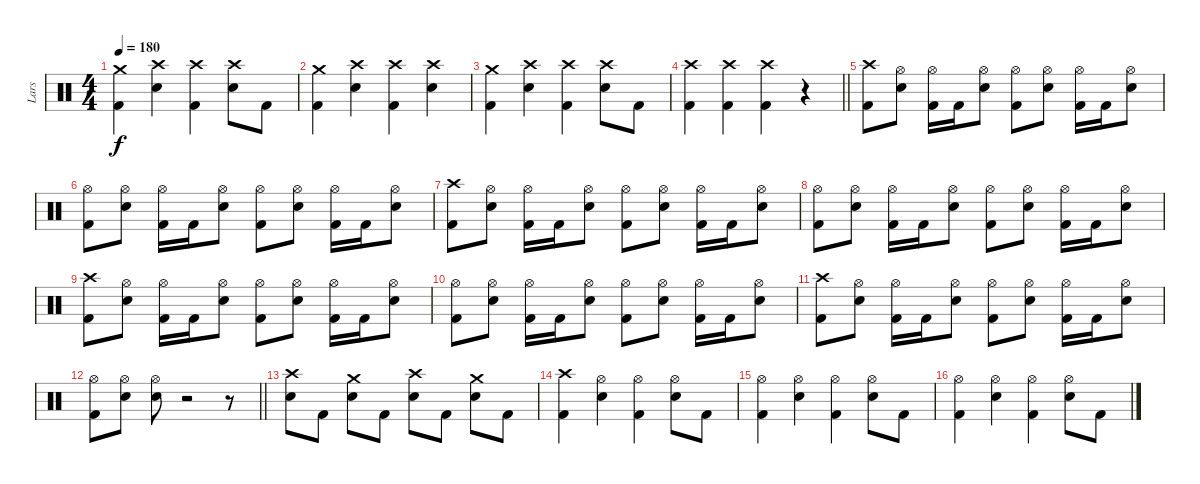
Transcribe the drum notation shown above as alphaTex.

\track ("Lars" "Lars") {instrument percussion}
\staff {score}
\articulation defaults
\ts (4 4)
\tempo 180
\clef neutral
\ks c
("Crash medium (hit)" "Kick (hit) 2").4{dy f} ("Crash high (hit)" "Electric Snare (hit)").4 ("Crash high (hit)" "Kick (hit) 2").4 ("Crash high (hit)" "Electric Snare (hit)").8 "Kick (hit) 2".8 |
("Crash medium (hit)" "Kick (hit) 2").4 ("Crash high (hit)" "Electric Snare (hit)").4 ("Crash high (hit)" "Kick (hit) 2").4 ("Crash high (hit)" "Electric Snare (hit)").4 |
("Crash medium (hit)" "Kick (hit) 2").4 ("Crash high (hit)" "Electric Snare (hit)").4 ("Crash high (hit)" "Kick (hit) 2").4 ("Crash high (hit)" "Electric Snare (hit)").8 "Kick (hit) 2".8 |
\barLineRight lightlight
("Crash high (hit)" "Kick (hit) 2").4 ("Crash high (hit)" "Kick (hit) 2").4 ("Crash high (hit)" "Kick (hit) 2").4 r.4 |
\section ("" "")
("Crash high (hit)" "Kick (hit) 2").8 ("Hi-Hat (open)" "Electric Snare (hit)").8 ("Hi-Hat (open)" "Kick (hit) 2").16 "Kick (hit) 2".16 ("Hi-Hat (open)" "Electric Snare (hit)").8 ("Hi-Hat (open)" "Kick (hit) 2").8 ("Hi-Hat (open)" "Electric Snare (hit)").8 ("Hi-Hat (open)" "Kick (hit) 2").16 "Kick (hit) 2".16 ("Hi-Hat (open)" "Electric Snare (hit)").8 |
("Hi-Hat (open)" "Kick (hit) 2").8 ("Hi-Hat (open)" "Electric Snare (hit)").8 ("Hi-Hat (open)" "Kick (hit) 2").16 "Kick (hit) 2".16 ("Hi-Hat (open)" "Electric Snare (hit)").8 ("Hi-Hat (open)" "Kick (hit) 2").8 ("Hi-Hat (open)" "Electric Snare (hit)").8 ("Hi-Hat (open)" "Kick (hit) 2").16 "Kick (hit) 2".16 ("Hi-Hat (open)" "Electric Snare (hit)").8 |
("Crash high (hit)" "Kick (hit) 2").8 ("Hi-Hat (open)" "Electric Snare (hit)").8 ("Hi-Hat (open)" "Kick (hit) 2").16 "Kick (hit) 2".16 ("Hi-Hat (open)" "Electric Snare (hit)").8 ("Hi-Hat (open)" "Kick (hit) 2").8 ("Hi-Hat (open)" "Electric Snare (hit)").8 ("Hi-Hat (open)" "Kick (hit) 2").16 "Kick (hit) 2".16 ("Hi-Hat (open)" "Electric Snare (hit)").8 |
("Hi-Hat (open)" "Kick (hit) 2").8 ("Hi-Hat (open)" "Electric Snare (hit)").8 ("Hi-Hat (open)" "Kick (hit) 2").16 "Kick (hit) 2".16 ("Hi-Hat (open)" "Electric Snare (hit)").8 ("Hi-Hat (open)" "Kick (hit) 2").8 ("Hi-Hat (open)" "Electric Snare (hit)").8 ("Hi-Hat (open)" "Kick (hit) 2").16 "Kick (hit) 2".16 ("Hi-Hat (open)" "Electric Snare (hit)").8 |
("Crash high (hit)" "Kick (hit) 2").8 ("Hi-Hat (open)" "Electric Snare (hit)").8 ("Hi-Hat (open)" "Kick (hit) 2").16 "Kick (hit) 2".16 ("Hi-Hat (open)" "Electric Snare (hit)").8 ("Hi-Hat (open)" "Kick (hit) 2").8 ("Hi-Hat (open)" "Electric Snare (hit)").8 ("Hi-Hat (open)" "Kick (hit) 2").16 "Kick (hit) 2".16 ("Hi-Hat (open)" "Electric Snare (hit)").8 |
("Hi-Hat (open)" "Kick (hit) 2").8 ("Hi-Hat (open)" "Electric Snare (hit)").8 ("Hi-Hat (open)" "Kick (hit) 2").16 "Kick (hit) 2".16 ("Hi-Hat (open)" "Electric Snare (hit)").8 ("Hi-Hat (open)" "Kick (hit) 2").8 ("Hi-Hat (open)" "Electric Snare (hit)").8 ("Hi-Hat (open)" "Kick (hit) 2").16 "Kick (hit) 2".16 ("Hi-Hat (open)" "Electric Snare (hit)").8 |
("Crash high (hit)" "Kick (hit) 2").8 ("Hi-Hat (open)" "Electric Snare (hit)").8 ("Hi-Hat (open)" "Kick (hit) 2").16 "Kick (hit) 2".16 ("Hi-Hat (open)" "Electric Snare (hit)").8 ("Hi-Hat (open)" "Kick (hit) 2").8 ("Hi-Hat (open)" "Electric Snare (hit)").8 ("Hi-Hat (open)" "Kick (hit) 2").16 "Kick (hit) 2".16 ("Hi-Hat (open)" "Electric Snare (hit)").8 |
\barLineRight lightlight
("Hi-Hat (open)" "Kick (hit) 2").8 ("Hi-Hat (open)" "Electric Snare (hit)").8 ("Hi-Hat (open)" "Electric Snare (hit)").8 r.2 r.8 |
\section ("" "")
("Crash high (hit)" "Electric Snare (hit)").8 "Kick (hit) 2".8 ("Crash medium (hit)" "Electric Snare (hit)").8 "Kick (hit) 2".8 ("Crash high (hit)" "Electric Snare (hit)").8 "Kick (hit) 2".8 ("Crash medium (hit)" "Electric Snare (hit)").8 "Kick (hit) 2".8 |
("Crash high (hit)" "Kick (hit) 2").4 ("Hi-Hat (open)" "Electric Snare (hit)").4 ("Hi-Hat (open)" "Kick (hit) 2").4 ("Hi-Hat (open)" "Electric Snare (hit)").8 "Kick (hit) 2".8 |
("Hi-Hat (open)" "Kick (hit) 2").4 ("Hi-Hat (open)" "Electric Snare (hit)").4 ("Hi-Hat (open)" "Kick (hit) 2").4 ("Hi-Hat (open)" "Electric Snare (hit)").8 "Kick (hit) 2".8 |
("Hi-Hat (open)" "Kick (hit) 2").4 ("Hi-Hat (open)" "Electric Snare (hit)").4 ("Hi-Hat (open)" "Kick (hit) 2").4 ("Hi-Hat (open)" "Electric Snare (hit)").8 "Kick (hit) 2".8
